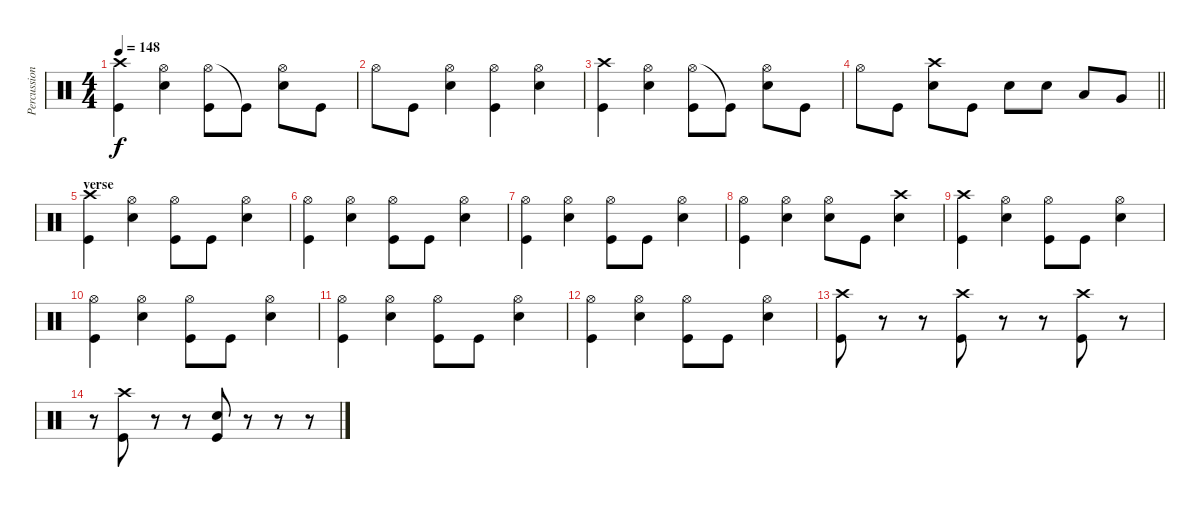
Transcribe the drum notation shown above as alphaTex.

\track ("Percussion" "Percussion") {instrument percussion}
\staff {score}
\articulation defaults
\ts (4 4)
\tempo 148
\clef neutral
\ks c
("Crash high (hit)" "Kick (hit)").4{dy f} ("Hi-Hat (open)" "Electric Snare (hit)").4 ("Hi-Hat (open)" "Kick (hit)").8 "Kick (hit)"{t}.8 ("Hi-Hat (open)" "Electric Snare (hit)").8 "Kick (hit)".8 |
"Hi-Hat (open)".8 "Kick (hit)".8 ("Hi-Hat (open)" "Electric Snare (hit)").4 ("Hi-Hat (open)" "Kick (hit)").4 ("Hi-Hat (open)" "Electric Snare (hit)").4 |
("Crash high (hit)" "Kick (hit)").4 ("Hi-Hat (open)" "Electric Snare (hit)").4 ("Hi-Hat (open)" "Kick (hit)").8 "Kick (hit)"{t}.8 ("Hi-Hat (open)" "Electric Snare (hit)").8 "Kick (hit)".8 |
\barLineRight lightlight "Hi-Hat (open)".8 "Kick (hit)".8
("Crash high (hit)" "Electric Snare (hit)").8 "Kick (hit)".8 "Electric Snare (hit)".8 "Electric Snare (hit)".8 "Low Tom (hit)".8 "Very Low Tom (hit)".8 |
\section ("" "verse")
("Crash high (hit)" "Kick (hit)").4 ("Snare (hit) 2" "Hi-Hat (open)").4 ("Kick (hit)" "Hi-Hat (open)").8 "Kick (hit)".8 ("Electric Snare (hit)" "Hi-Hat (open)").4 |
("Hi-Hat (open)" "Kick (hit)").4 ("Snare (hit) 2" "Hi-Hat (open)").4 ("Kick (hit)" "Hi-Hat (open)").8 "Kick (hit)".8 ("Electric Snare (hit)" "Hi-Hat (open)").4 |
("Hi-Hat (open)" "Kick (hit)").4 ("Snare (hit) 2" "Hi-Hat (open)").4 ("Kick (hit)" "Hi-Hat (open)").8 "Kick (hit)".8 ("Electric Snare (hit)" "Hi-Hat (open)").4 |
("Hi-Hat (open)" "Kick (hit)").4 ("Snare (hit) 2" "Hi-Hat (open)").4 ("Electric Snare (hit)" "Hi-Hat (open)").8 "Kick (hit)".8 ("Electric Snare (hit)" "Crash high (hit)").4 |
("Crash high (hit)" "Kick (hit)").4 ("Snare (hit) 2" "Hi-Hat (open)").4 ("Kick (hit)" "Hi-Hat (open)").8 "Kick (hit)".8 ("Electric Snare (hit)" "Hi-Hat (open)").4 |
("Hi-Hat (open)" "Kick (hit)").4 ("Snare (hit) 2" "Hi-Hat (open)").4 ("Kick (hit)" "Hi-Hat (open)").8 "Kick (hit)".8 ("Electric Snare (hit)" "Hi-Hat (open)").4 |
("Hi-Hat (open)" "Kick (hit)").4 ("Snare (hit) 2" "Hi-Hat (open)").4 ("Kick (hit)" "Hi-Hat (open)").8 "Kick (hit)".8 ("Electric Snare (hit)" "Hi-Hat (open)").4 |
("Hi-Hat (open)" "Kick (hit)").4 ("Snare (hit) 2" "Hi-Hat (open)").4 ("Kick (hit)" "Hi-Hat (open)").8 "Kick (hit)".8 ("Electric Snare (hit)" "Hi-Hat (open)").4 |
("Crash high (hit)" "Kick (hit)").8 r.8 r.8 ("Crash high (hit)" "Kick (hit)").8 r.8 r.8 ("Crash high (hit)" "Kick (hit)").8 r.8 |
r.8 ("Crash high (hit)" "Kick (hit)").8 r.8 r.8 ("Electric Snare (hit)" "Kick (hit)").8 r.8 r.8 r.8
